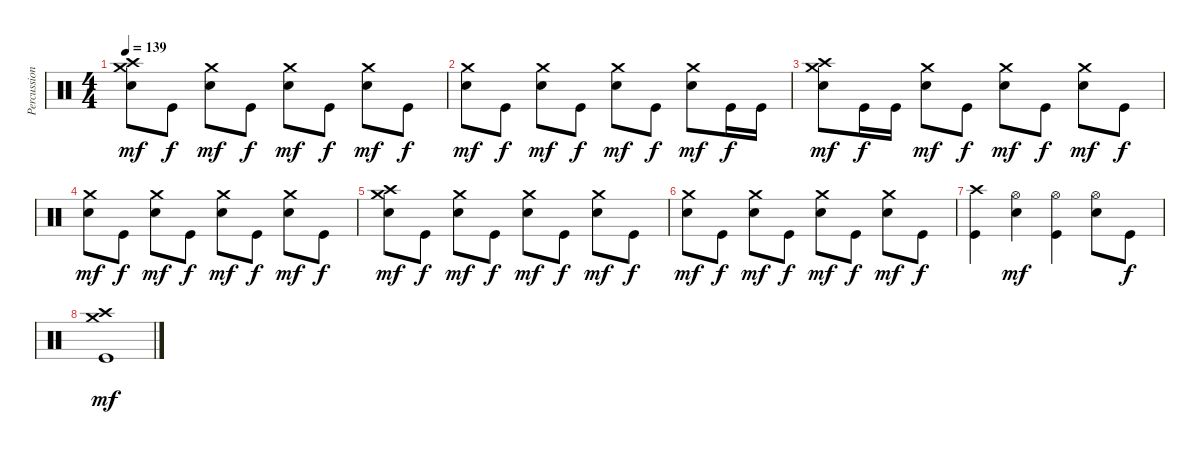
\track ("Percussions" "Percussion") {instrument percussion}
\staff {score}
\articulation defaults
\ts (4 4)
\tempo 139
\clef neutral
\ks c
("Electric Snare (hit)" "Crash medium (hit)" "Crash high (hit)").8{dy mf} "Kick (hit)".8{dy f} ("Electric Snare (hit)" "Crash medium (hit)").8{dy mf} "Kick (hit)".8{dy f} ("Electric Snare (hit)" "Crash medium (hit)").8{dy mf} "Kick (hit)".8{dy f} ("Electric Snare (hit)" "Crash medium (hit)").8{dy mf} "Kick (hit)".8{dy f} |
("Electric Snare (hit)" "Crash medium (hit)").8{dy mf} "Kick (hit)".8{dy f} ("Electric Snare (hit)" "Crash medium (hit)").8{dy mf} "Kick (hit)".8{dy f} ("Electric Snare (hit)" "Crash medium (hit)").8{dy mf} "Kick (hit)".8{dy f} ("Electric Snare (hit)" "Crash medium (hit)").8{dy mf} "Kick (hit)".16{dy f} "Kick (hit)".16 |
("Electric Snare (hit)" "Crash medium (hit)" "Crash high (hit)").8{dy mf} "Kick (hit)".16{dy f} "Kick (hit)".16 ("Electric Snare (hit)" "Crash medium (hit)").8{dy mf} "Kick (hit)".8{dy f} ("Electric Snare (hit)" "Crash medium (hit)").8{dy mf} "Kick (hit)".8{dy f} ("Electric Snare (hit)" "Crash medium (hit)").8{dy mf} "Kick (hit)".8{dy f} |
("Electric Snare (hit)" "Crash medium (hit)").8{dy mf} "Kick (hit)".8{dy f} ("Electric Snare (hit)" "Crash medium (hit)").8{dy mf} "Kick (hit)".8{dy f} ("Electric Snare (hit)" "Crash medium (hit)").8{dy mf} "Kick (hit)".8{dy f} ("Electric Snare (hit)" "Crash medium (hit)").8{dy mf} "Kick (hit)".8{dy f} |
("Electric Snare (hit)" "Crash medium (hit)" "Crash high (hit)").8{dy mf} "Kick (hit)".8{dy f} ("Electric Snare (hit)" "Crash medium (hit)").8{dy mf} "Kick (hit)".8{dy f} ("Electric Snare (hit)" "Crash medium (hit)").8{dy mf} "Kick (hit)".8{dy f} ("Electric Snare (hit)" "Crash medium (hit)").8{dy mf} "Kick (hit)".8{dy f} |
("Electric Snare (hit)" "Crash medium (hit)").8{dy mf} "Kick (hit)".8{dy f} ("Electric Snare (hit)" "Crash medium (hit)").8{dy mf} "Kick (hit)".8{dy f} ("Electric Snare (hit)" "Crash medium (hit)").8{dy mf} "Kick (hit)".8{dy f} ("Electric Snare (hit)" "Crash medium (hit)").8{dy mf} "Kick (hit)".8{dy f} |
("Kick (hit)" "Crash high (hit)").4 ("Electric Snare (hit)" "Hi-Hat (open)").4{dy mf} ("Kick (hit)" "Hi-Hat (open)").4 ("Electric Snare (hit)" "Hi-Hat (open)").8 "Kick (hit)".8{dy f} |
("Kick (hit)" "Crash medium (hit)" "Crash high (hit)").1{dy mf}
